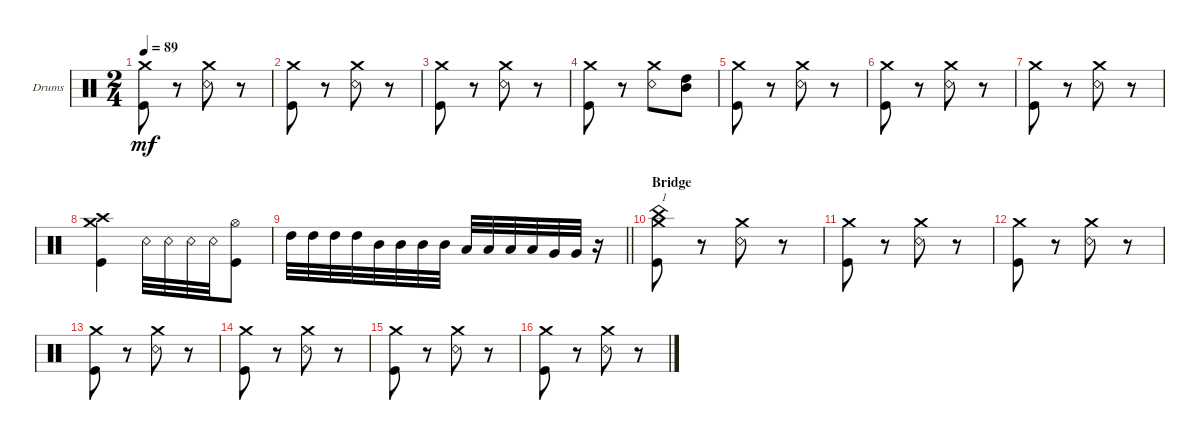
\bracketExtendMode groupsimilarinstruments
\firstSystemTrackNameOrientation horizontal
\otherSystemsTrackNameOrientation horizontal
\track ("Ryo" "Drums") {instrument percussion}
\staff {score}
\articulation defaults
\ts (2 4)
\tempo 89
\clef neutral
\ks c
("Crash medium (hit)" "Kick (hit)").8{dy mf} r.8 ("Crash medium (hit)" "Snare (rim shot)").8 r.8 |
("Kick (hit)" "Crash medium (hit)").8 r.8 ("Crash medium (hit)" "Snare (rim shot)").8 r.8 |
("Crash medium (hit)" "Kick (hit)").8 r.8 ("Crash medium (hit)" "Snare (rim shot)").8 r.8 |
("Kick (hit)" "Crash medium (hit)").8 r.8 ("Crash medium (hit)" "Snare (rim shot)").8 ("Mid Tom (hit)" "High Tom (hit)").8 |
("Crash medium (hit)" "Kick (hit)").8 r.8 ("Crash medium (hit)" "Snare (rim shot)").8 r.8 |
("Kick (hit)" "Crash medium (hit)").8 r.8 ("Crash medium (hit)" "Snare (rim shot)").8 r.8 |
("Crash medium (hit)" "Kick (hit)").8 r.8 ("Crash medium (hit)" "Snare (rim shot)").8 r.8 |
("Kick (hit)" "Crash medium (hit)" "Crash high (hit)").4 "Snare (rim shot)".32 "Snare (rim shot)".32 "Snare (rim shot)".32 "Snare (rim shot)".32 ("Kick (hit)" "Hi-Hat (open)").8 |
\barLineRight lightlight "High Tom (hit)".32 "High Tom (hit)".32 "High Tom (hit)".32 "High Tom (hit)".32 "Mid Tom (hit)".32 "Mid Tom (hit)".32 "Mid Tom (hit)".32 "Mid Tom (hit)".32 "Low Tom (hit)".32 "Low Tom (hit)".32 "Low Tom (hit)".32 "Low Tom (hit)".32 "Very Low Tom (hit)".32 "Very Low Tom (hit)".32
r.16 |
\section ("" "Bridge")
("Kick (hit)" "Crash medium (hit)" "China (hit)").8{txt "1"} r.8 ("Crash medium (hit)" "Snare (rim shot)").8 r.8 |
("Crash medium (hit)" "Kick (hit)").8 r.8 ("Crash medium (hit)" "Snare (rim shot)").8 r.8 |
("Kick (hit)" "Crash medium (hit)").8 r.8 ("Crash medium (hit)" "Snare (rim shot)").8 r.8 |
("Crash medium (hit)" "Kick (hit)").8 r.8 ("Crash medium (hit)" "Snare (rim shot)").8 r.8 |
("Kick (hit)" "Crash medium (hit)").8 r.8 ("Crash medium (hit)" "Snare (rim shot)").8 r.8 |
("Crash medium (hit)" "Kick (hit)").8 r.8 ("Crash medium (hit)" "Snare (rim shot)").8 r.8 |
("Kick (hit)" "Crash medium (hit)").8 r.8 ("Crash medium (hit)" "Snare (rim shot)").8 r.8
